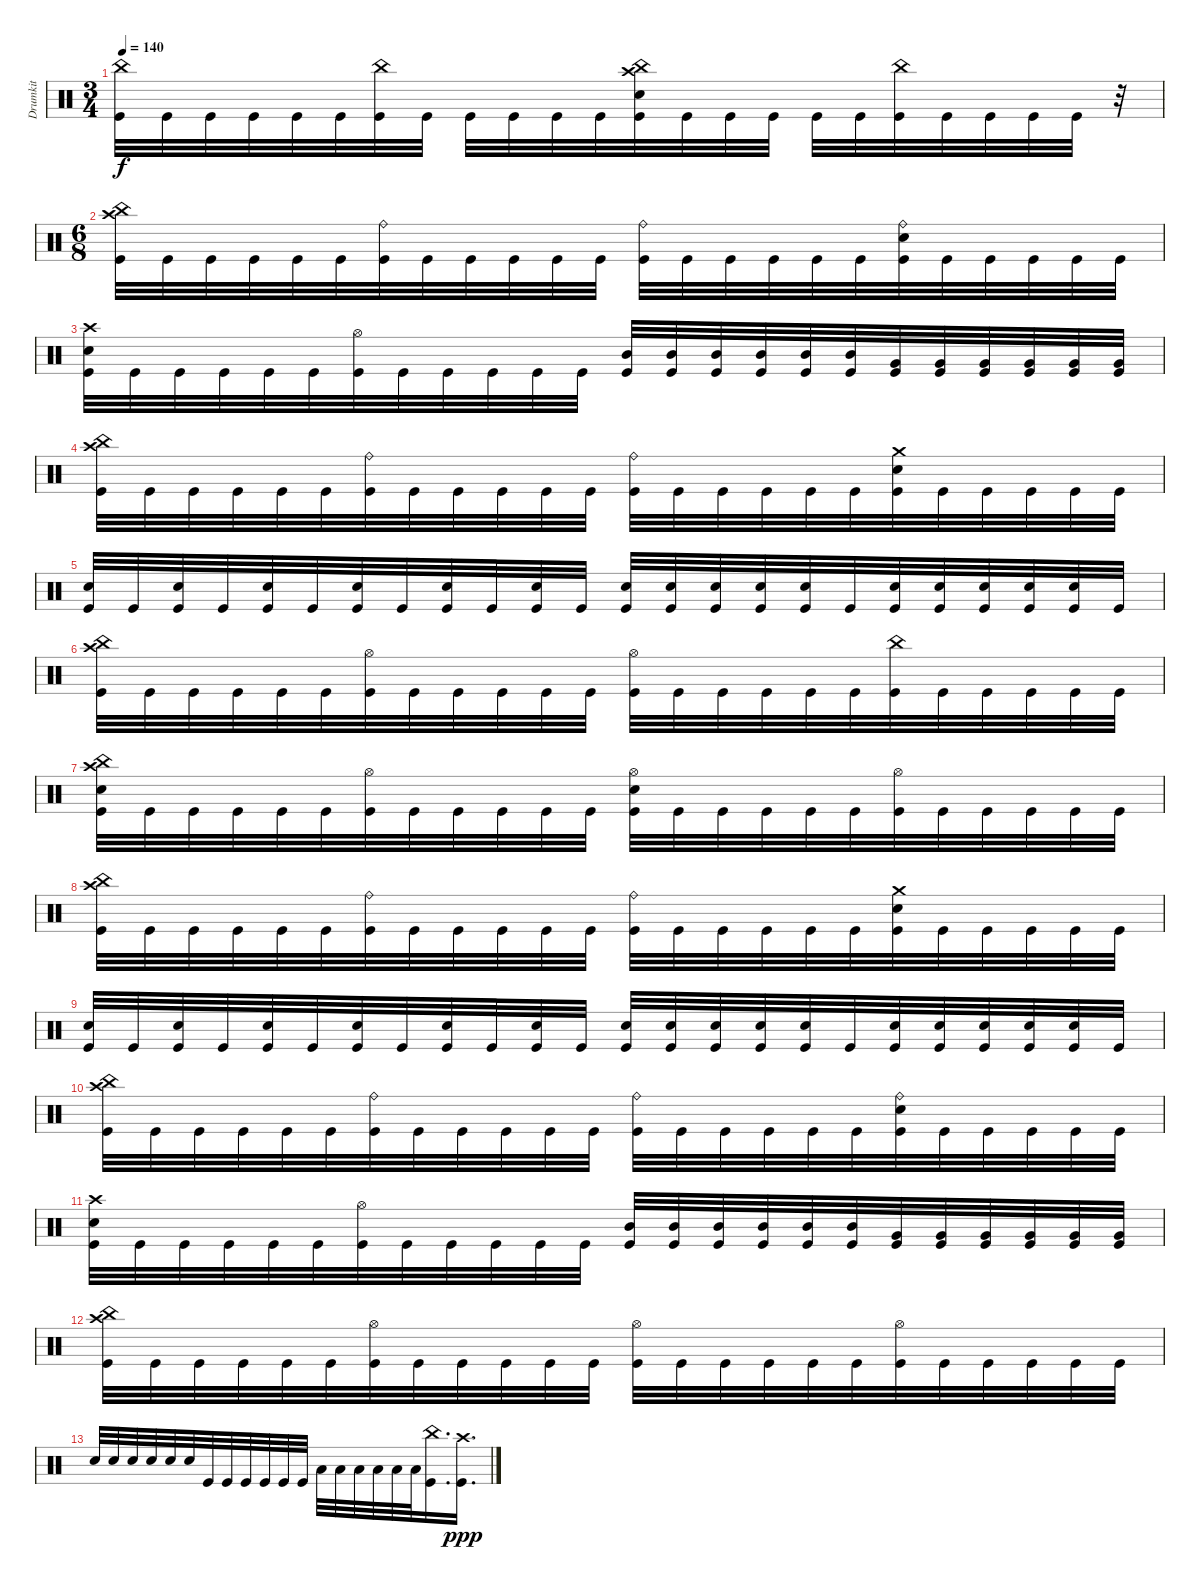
\track ("Drumkit" "Drumkit") {mute instrument percussion}
\staff {score}
\articulation defaults
\ts (3 4)
\tempo 140
\clef neutral
\ks c
("Kick (hit)" "China (hit)").32{dy f} "Kick (hit)".32 "Kick (hit)".32 "Kick (hit)".32 "Kick (hit)".32 "Kick (hit)".32 ("Kick (hit)" "China (hit)").32 "Kick (hit)".32 "Kick (hit)".32 "Kick (hit)".32 "Kick (hit)".32 "Kick (hit)".32 ("Kick (hit)" "Snare (hit) 2" "China (hit)" "Crash high (hit)").32 "Kick (hit)".32 "Kick (hit)".32 "Kick (hit)".32 "Kick (hit)".32 "Kick (hit)".32 ("Kick (hit)" "China (hit)").32 "Kick (hit)".32 "Kick (hit)".32 "Kick (hit)".32 "Kick (hit)".32 r.32 |
\ts (6 8)
("Kick (hit)" "China (hit)" "Crash high (hit)").32 "Kick (hit)".32 "Kick (hit)".32 "Kick (hit)".32 "Kick (hit)".32 "Kick (hit)".32 ("Kick (hit)" "Ride (bell)").32 "Kick (hit)".32 "Kick (hit)".32 "Kick (hit)".32 "Kick (hit)".32 "Kick (hit)".32 ("Kick (hit)" "Ride (bell)").32 "Kick (hit)".32 "Kick (hit)".32 "Kick (hit)".32 "Kick (hit)".32 "Kick (hit)".32 ("Kick (hit)" "Ride (bell)" "Snare (hit) 2").32 "Kick (hit)".32 "Kick (hit)".32 "Kick (hit)".32 "Kick (hit)".32 "Kick (hit)".32 |
("Kick (hit)" "Snare (hit) 2" "Crash high (hit)").32 "Kick (hit)".32 "Kick (hit)".32 "Kick (hit)".32 "Kick (hit)".32 "Kick (hit)".32 ("Kick (hit)" "Hi-Hat (open)").32 "Kick (hit)".32 "Kick (hit)".32 "Kick (hit)".32 "Kick (hit)".32 "Kick (hit)".32 ("Kick (hit)" "Mid Tom (hit)").32 ("Kick (hit)" "Mid Tom (hit)").32 ("Kick (hit)" "Mid Tom (hit)").32 ("Kick (hit)" "Mid Tom (hit)").32 ("Kick (hit)" "Mid Tom (hit)").32 ("Kick (hit)" "Mid Tom (hit)").32 ("Kick (hit)" "Very Low Tom (hit)").32 ("Kick (hit)" "Very Low Tom (hit)").32 ("Kick (hit)" "Very Low Tom (hit)").32 ("Kick (hit)" "Very Low Tom (hit)").32 ("Kick (hit)" "Very Low Tom (hit)").32 ("Kick (hit)" "Very Low Tom (hit)").32 |
("Kick (hit)" "China (hit)" "Crash high (hit)").32 "Kick (hit)".32 "Kick (hit)".32 "Kick (hit)".32 "Kick (hit)".32 "Kick (hit)".32 ("Kick (hit)" "Ride (bell)").32 "Kick (hit)".32 "Kick (hit)".32 "Kick (hit)".32 "Kick (hit)".32 "Kick (hit)".32 ("Kick (hit)" "Ride (bell)").32 "Kick (hit)".32 "Kick (hit)".32 "Kick (hit)".32 "Kick (hit)".32 "Kick (hit)".32 ("Kick (hit)" "Crash medium (hit)" "Snare (hit) 2").32 "Kick (hit)".32 "Kick (hit)".32 "Kick (hit)".32 "Kick (hit)".32 "Kick (hit)".32 |
("Kick (hit)" "Snare (hit) 2").32 "Kick (hit)".32 ("Kick (hit)" "Snare (hit) 2").32 "Kick (hit)".32 ("Kick (hit)" "Snare (hit) 2").32 "Kick (hit)".32 ("Kick (hit)" "Snare (hit) 2").32 "Kick (hit)".32 ("Kick (hit)" "Snare (hit) 2").32 "Kick (hit)".32 ("Kick (hit)" "Snare (hit) 2").32 "Kick (hit)".32 ("Kick (hit)" "Snare (hit) 2").32 ("Kick (hit)" "Snare (hit) 2").32 ("Kick (hit)" "Snare (hit) 2").32 ("Kick (hit)" "Snare (hit) 2").32 ("Kick (hit)" "Snare (hit) 2").32 "Kick (hit)".32 ("Kick (hit)" "Snare (hit) 2").32 ("Kick (hit)" "Snare (hit) 2").32 ("Kick (hit)" "Snare (hit) 2").32 ("Kick (hit)" "Snare (hit) 2").32 ("Kick (hit)" "Snare (hit) 2").32 "Kick (hit)".32 |
("Kick (hit)" "China (hit)" "Crash high (hit)").32 "Kick (hit)".32 "Kick (hit)".32 "Kick (hit)".32 "Kick (hit)".32 "Kick (hit)".32 ("Kick (hit)" "Hi-Hat (open)").32 "Kick (hit)".32 "Kick (hit)".32 "Kick (hit)".32 "Kick (hit)".32 "Kick (hit)".32 ("Kick (hit)" "Hi-Hat (open)").32 "Kick (hit)".32 "Kick (hit)".32 "Kick (hit)".32 "Kick (hit)".32 "Kick (hit)".32 ("Kick (hit)" "China (hit)").32 "Kick (hit)".32 "Kick (hit)".32 "Kick (hit)".32 "Kick (hit)".32 "Kick (hit)".32 |
("Kick (hit)" "Snare (hit) 2" "China (hit)" "Crash high (hit)").32 "Kick (hit)".32 "Kick (hit)".32 "Kick (hit)".32 "Kick (hit)".32 "Kick (hit)".32 ("Kick (hit)" "Hi-Hat (open)").32 "Kick (hit)".32 "Kick (hit)".32 "Kick (hit)".32 "Kick (hit)".32 "Kick (hit)".32 ("Kick (hit)" "Hi-Hat (open)" "Snare (hit) 2").32 "Kick (hit)".32 "Kick (hit)".32 "Kick (hit)".32 "Kick (hit)".32 "Kick (hit)".32 ("Kick (hit)" "Hi-Hat (open)").32 "Kick (hit)".32 "Kick (hit)".32 "Kick (hit)".32 "Kick (hit)".32 "Kick (hit)".32 |
("Kick (hit)" "China (hit)" "Crash high (hit)").32 "Kick (hit)".32 "Kick (hit)".32 "Kick (hit)".32 "Kick (hit)".32 "Kick (hit)".32 ("Kick (hit)" "Ride (bell)").32 "Kick (hit)".32 "Kick (hit)".32 "Kick (hit)".32 "Kick (hit)".32 "Kick (hit)".32 ("Kick (hit)" "Ride (bell)").32 "Kick (hit)".32 "Kick (hit)".32 "Kick (hit)".32 "Kick (hit)".32 "Kick (hit)".32 ("Kick (hit)" "Crash medium (hit)" "Snare (hit) 2").32 "Kick (hit)".32 "Kick (hit)".32 "Kick (hit)".32 "Kick (hit)".32 "Kick (hit)".32 |
("Kick (hit)" "Snare (hit) 2").32 "Kick (hit)".32 ("Kick (hit)" "Snare (hit) 2").32 "Kick (hit)".32 ("Kick (hit)" "Snare (hit) 2").32 "Kick (hit)".32 ("Kick (hit)" "Snare (hit) 2").32 "Kick (hit)".32 ("Kick (hit)" "Snare (hit) 2").32 "Kick (hit)".32 ("Kick (hit)" "Snare (hit) 2").32 "Kick (hit)".32 ("Kick (hit)" "Snare (hit) 2").32 ("Kick (hit)" "Snare (hit) 2").32 ("Kick (hit)" "Snare (hit) 2").32 ("Kick (hit)" "Snare (hit) 2").32 ("Kick (hit)" "Snare (hit) 2").32 "Kick (hit)".32 ("Kick (hit)" "Snare (hit) 2").32 ("Kick (hit)" "Snare (hit) 2").32 ("Kick (hit)" "Snare (hit) 2").32 ("Kick (hit)" "Snare (hit) 2").32 ("Kick (hit)" "Snare (hit) 2").32 "Kick (hit)".32 |
("Kick (hit)" "China (hit)" "Crash high (hit)").32 "Kick (hit)".32 "Kick (hit)".32 "Kick (hit)".32 "Kick (hit)".32 "Kick (hit)".32 ("Kick (hit)" "Ride (bell)").32 "Kick (hit)".32 "Kick (hit)".32 "Kick (hit)".32 "Kick (hit)".32 "Kick (hit)".32 ("Kick (hit)" "Ride (bell)").32 "Kick (hit)".32 "Kick (hit)".32 "Kick (hit)".32 "Kick (hit)".32 "Kick (hit)".32 ("Kick (hit)" "Ride (bell)" "Snare (hit) 2").32 "Kick (hit)".32 "Kick (hit)".32 "Kick (hit)".32 "Kick (hit)".32 "Kick (hit)".32 |
("Kick (hit)" "Snare (hit) 2" "Crash high (hit)").32 "Kick (hit)".32 "Kick (hit)".32 "Kick (hit)".32 "Kick (hit)".32 "Kick (hit)".32 ("Kick (hit)" "Hi-Hat (open)").32 "Kick (hit)".32 "Kick (hit)".32 "Kick (hit)".32 "Kick (hit)".32 "Kick (hit)".32 ("Kick (hit)" "Mid Tom (hit)").32 ("Kick (hit)" "Mid Tom (hit)").32 ("Kick (hit)" "Mid Tom (hit)").32 ("Kick (hit)" "Mid Tom (hit)").32 ("Kick (hit)" "Mid Tom (hit)").32 ("Kick (hit)" "Mid Tom (hit)").32 ("Kick (hit)" "Very Low Tom (hit)").32 ("Kick (hit)" "Very Low Tom (hit)").32 ("Kick (hit)" "Very Low Tom (hit)").32 ("Kick (hit)" "Very Low Tom (hit)").32 ("Kick (hit)" "Very Low Tom (hit)").32 ("Kick (hit)" "Very Low Tom (hit)").32 |
("Kick (hit)" "China (hit)" "Crash high (hit)").32 "Kick (hit)".32 "Kick (hit)".32 "Kick (hit)".32 "Kick (hit)".32 "Kick (hit)".32 ("Kick (hit)" "Hi-Hat (open)").32 "Kick (hit)".32 "Kick (hit)".32 "Kick (hit)".32 "Kick (hit)".32 "Kick (hit)".32 ("Kick (hit)" "Hi-Hat (open)").32 "Kick (hit)".32 "Kick (hit)".32 "Kick (hit)".32 "Kick (hit)".32 "Kick (hit)".32 ("Kick (hit)" "Hi-Hat (open)").32 "Kick (hit)".32 "Kick (hit)".32 "Kick (hit)".32 "Kick (hit)".32 "Kick (hit)".32 |
"Snare (hit) 2".32 "Snare (hit) 2".32 "Snare (hit) 2".32 "Snare (hit) 2".32 "Snare (hit) 2".32 "Snare (hit) 2".32 "Kick (hit)".32 "Kick (hit)".32 "Kick (hit)".32 "Kick (hit)".32 "Kick (hit)".32 "Kick (hit)".32 "Low Tom (hit)".32 "Low Tom (hit)".32 "Low Tom (hit)".32 "Low Tom (hit)".32 "Low Tom (hit)".32 "Low Tom (hit)".32 ("Kick (hit)" "China (hit)").16{d} ("Kick (hit)" "Crash high (hit)").16{d dy ppp}
